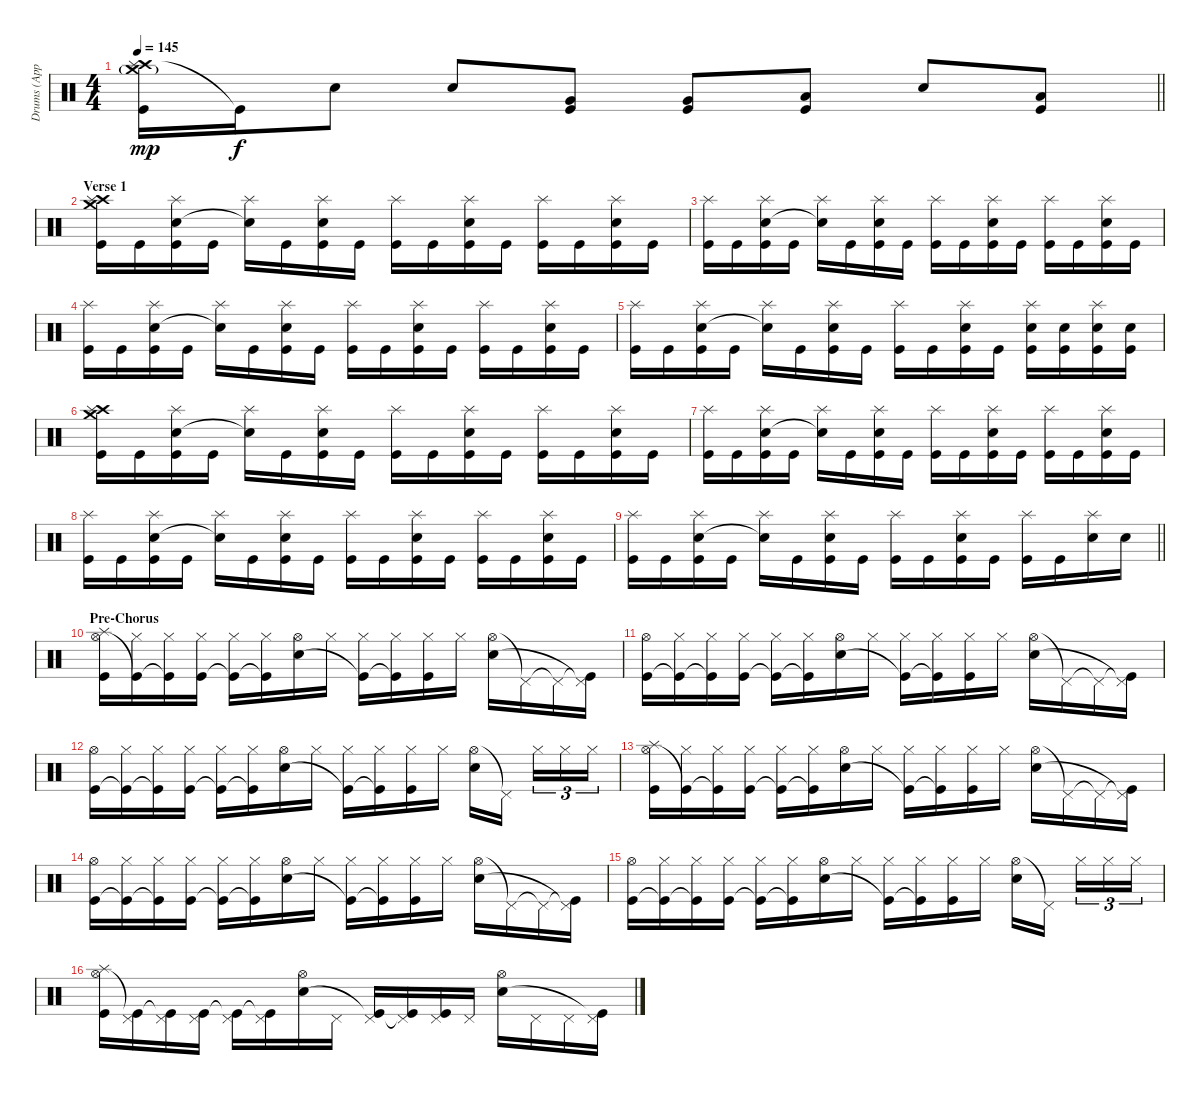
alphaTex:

\track ("Drums (Approx.)" "Drums (App") {instrument percussion}
\staff {score}
\articulation defaults
\ts (4 4)
\tempo 145
\clef neutral
\barLineRight lightlight
\ks c
("Crash high (hit)" "Crash medium (hit)"{g} "Splash (hit)" "Kick (hit)").16{dy mp} "Kick (hit)"{t}.16{dy f} "Electric Snare (hit)".8 "Electric Snare (hit)".8 ("Very Low Tom (hit)" "Kick (hit)").8 ("Very Low Tom (hit)" "Kick (hit)").8 ("Low Floor Tom (hit)" "Kick (hit)").8 "Electric Snare (hit)".8 ("Low Floor Tom (hit)" "Kick (hit)").8 |
\section ("" "Verse 1")
("Crash high (hit)" "Crash medium (hit)" "Splash (hit)" "Kick (hit)").16 "Kick (hit)".16 ("Splash (hit)" "Electric Snare (hit)" "Kick (hit)").16 "Kick (hit)".16 ("Splash (hit)" "Snare (hit)"{t}).16 "Kick (hit)".16 ("Splash (hit)" "Electric Snare (hit)" "Kick (hit)").16 "Kick (hit)".16 ("Splash (hit)" "Kick (hit)").16 "Kick (hit)".16 ("Splash (hit)" "Electric Snare (hit)" "Kick (hit)").16 "Kick (hit)".16 ("Splash (hit)" "Kick (hit)").16 "Kick (hit)".16 ("Splash (hit)" "Electric Snare (hit)" "Kick (hit)").16 "Kick (hit)".16 |
("Splash (hit)" "Kick (hit)").16 "Kick (hit)".16 ("Splash (hit)" "Electric Snare (hit)" "Kick (hit)").16 "Kick (hit)".16 ("Splash (hit)" "Snare (hit)"{t}).16 "Kick (hit)".16 ("Splash (hit)" "Electric Snare (hit)" "Kick (hit)").16 "Kick (hit)".16 ("Splash (hit)" "Kick (hit)").16 "Kick (hit)".16 ("Splash (hit)" "Electric Snare (hit)" "Kick (hit)").16 "Kick (hit)".16 ("Splash (hit)" "Kick (hit)").16 "Kick (hit)".16 ("Splash (hit)" "Electric Snare (hit)" "Kick (hit)").16 "Kick (hit)".16 |
("Splash (hit)" "Kick (hit)").16 "Kick (hit)".16 ("Splash (hit)" "Electric Snare (hit)" "Kick (hit)").16 "Kick (hit)".16 ("Splash (hit)" "Snare (hit)"{t}).16 "Kick (hit)".16 ("Splash (hit)" "Electric Snare (hit)" "Kick (hit)").16 "Kick (hit)".16 ("Splash (hit)" "Kick (hit)").16 "Kick (hit)".16 ("Splash (hit)" "Electric Snare (hit)" "Kick (hit)").16 "Kick (hit)".16 ("Splash (hit)" "Kick (hit)").16 "Kick (hit)".16 ("Splash (hit)" "Electric Snare (hit)" "Kick (hit)").16 "Kick (hit)".16 |
("Splash (hit)" "Kick (hit)").16 "Kick (hit)".16 ("Splash (hit)" "Electric Snare (hit)" "Kick (hit)").16 "Kick (hit)".16 ("Splash (hit)" "Snare (hit)"{t}).16 "Kick (hit)".16 ("Splash (hit)" "Electric Snare (hit)" "Kick (hit)").16 "Kick (hit)".16 ("Splash (hit)" "Kick (hit)").16 "Kick (hit)".16 ("Splash (hit)" "Electric Snare (hit)" "Kick (hit)").16 "Kick (hit)".16 ("Splash (hit)" "Electric Snare (hit)" "Kick (hit)").16 ("Electric Snare (hit)" "Kick (hit)").16 ("Splash (hit)" "Electric Snare (hit)" "Kick (hit)").16 ("Electric Snare (hit)" "Kick (hit)").16 |
("Crash high (hit)" "Crash medium (hit)" "Splash (hit)" "Kick (hit)").16 "Kick (hit)".16 ("Splash (hit)" "Electric Snare (hit)" "Kick (hit)").16 "Kick (hit)".16 ("Splash (hit)" "Snare (hit)"{t}).16 "Kick (hit)".16 ("Splash (hit)" "Electric Snare (hit)" "Kick (hit)").16 "Kick (hit)".16 ("Splash (hit)" "Kick (hit)").16 "Kick (hit)".16 ("Splash (hit)" "Electric Snare (hit)" "Kick (hit)").16 "Kick (hit)".16 ("Splash (hit)" "Kick (hit)").16 "Kick (hit)".16 ("Splash (hit)" "Electric Snare (hit)" "Kick (hit)").16 "Kick (hit)".16 |
("Splash (hit)" "Kick (hit)").16 "Kick (hit)".16 ("Splash (hit)" "Electric Snare (hit)" "Kick (hit)").16 "Kick (hit)".16 ("Splash (hit)" "Snare (hit)"{t}).16 "Kick (hit)".16 ("Splash (hit)" "Electric Snare (hit)" "Kick (hit)").16 "Kick (hit)".16 ("Splash (hit)" "Kick (hit)").16 "Kick (hit)".16 ("Splash (hit)" "Electric Snare (hit)" "Kick (hit)").16 "Kick (hit)".16 ("Splash (hit)" "Kick (hit)").16 "Kick (hit)".16 ("Splash (hit)" "Electric Snare (hit)" "Kick (hit)").16 "Kick (hit)".16 |
("Splash (hit)" "Kick (hit)").16 "Kick (hit)".16 ("Splash (hit)" "Electric Snare (hit)" "Kick (hit)").16 "Kick (hit)".16 ("Splash (hit)" "Snare (hit)"{t}).16 "Kick (hit)".16 ("Splash (hit)" "Electric Snare (hit)" "Kick (hit)").16 "Kick (hit)".16 ("Splash (hit)" "Kick (hit)").16 "Kick (hit)".16 ("Splash (hit)" "Electric Snare (hit)" "Kick (hit)").16 "Kick (hit)".16 ("Splash (hit)" "Kick (hit)").16 "Kick (hit)".16 ("Splash (hit)" "Electric Snare (hit)" "Kick (hit)").16 "Kick (hit)".16 |
\barLineRight lightlight
("Splash (hit)" "Kick (hit)").16 "Kick (hit)".16 ("Splash (hit)" "Electric Snare (hit)" "Kick (hit)").16 "Kick (hit)".16 ("Splash (hit)" "Snare (hit)"{t}).16 "Kick (hit)".16 ("Splash (hit)" "Electric Snare (hit)" "Kick (hit)").16 "Kick (hit)".16 ("Splash (hit)" "Kick (hit)").16 "Kick (hit)".16 ("Splash (hit)" "Electric Snare (hit)" "Kick (hit)").16 "Kick (hit)".16 ("Splash (hit)" "Kick (hit)").16 "Kick (hit)".16 ("Splash (hit)" "Electric Snare (hit)").16 "Electric Snare (hit)".16 |
\section ("" "Pre-Chorus")
("Splash (hit)" "Hi-Hat (open)" "Kick (hit)").16 ("Hi-Hat (closed)" "Kick (hit)"{t}).16 ("Hi-Hat (closed)" "Kick (hit)"{t}).16 ("Hi-Hat (closed)" "Kick (hit)").16 ("Hi-Hat (closed)" "Kick (hit)"{t}).16 ("Hi-Hat (closed)" "Kick (hit)"{t}).16 ("Hi-Hat (open)" "Electric Snare (hit)").16 "Hi-Hat (closed)".16 ("Hi-Hat (closed)" "Kick (hit)"{t}).16 ("Hi-Hat (closed)" "Kick (hit)"{t}).16 ("Hi-Hat (closed)" "Kick (hit)").16 "Hi-Hat (closed)".16 ("Hi-Hat (open)" "Electric Snare (hit)").16 "Pedal Hi-Hat (hit)"{t}.16 "Pedal Hi-Hat (hit)"{t}.16 ("Pedal Hi-Hat (hit)"{t} "Kick (hit)"{t}).16 |
("Hi-Hat (open)" "Kick (hit)").16 ("Hi-Hat (closed)" "Kick (hit)"{t}).16 ("Hi-Hat (closed)" "Kick (hit)"{t}).16 ("Hi-Hat (closed)" "Kick (hit)").16 ("Hi-Hat (closed)" "Kick (hit)"{t}).16 ("Hi-Hat (closed)" "Kick (hit)"{t}).16 ("Hi-Hat (open)" "Electric Snare (hit)").16 "Hi-Hat (closed)".16 ("Hi-Hat (closed)" "Kick (hit)"{t}).16 ("Hi-Hat (closed)" "Kick (hit)"{t}).16 ("Hi-Hat (closed)" "Kick (hit)").16 "Hi-Hat (closed)".16 ("Hi-Hat (open)" "Electric Snare (hit)").16 "Pedal Hi-Hat (hit)"{t}.16 "Pedal Hi-Hat (hit)"{t}.16 ("Pedal Hi-Hat (hit)"{t} "Kick (hit)"{t}).16 |
("Hi-Hat (open)" "Kick (hit)").16 ("Hi-Hat (closed)" "Kick (hit)"{t}).16 ("Hi-Hat (closed)" "Kick (hit)"{t}).16 ("Hi-Hat (closed)" "Kick (hit)").16 ("Hi-Hat (closed)" "Kick (hit)"{t}).16 ("Hi-Hat (closed)" "Kick (hit)"{t}).16 ("Hi-Hat (open)" "Electric Snare (hit)").16 "Hi-Hat (closed)".16 ("Hi-Hat (closed)" "Kick (hit)"{t}).16 ("Hi-Hat (closed)" "Kick (hit)"{t}).16 ("Hi-Hat (closed)" "Kick (hit)").16 "Hi-Hat (closed)".16 ("Hi-Hat (open)" "Electric Snare (hit)").16 "Pedal Hi-Hat (hit)"{t}.16{beam splitsecondary} "Hi-Hat (closed)".16{tu (3 2)} "Hi-Hat (closed)".16{tu (3 2)} "Hi-Hat (closed)".16{tu (3 2)} |
("Splash (hit)" "Hi-Hat (open)" "Kick (hit)").16 ("Hi-Hat (closed)" "Kick (hit)"{t}).16 ("Hi-Hat (closed)" "Kick (hit)"{t}).16 ("Hi-Hat (closed)" "Kick (hit)").16 ("Hi-Hat (closed)" "Kick (hit)"{t}).16 ("Hi-Hat (closed)" "Kick (hit)"{t}).16 ("Hi-Hat (open)" "Electric Snare (hit)").16 "Hi-Hat (closed)".16 ("Hi-Hat (closed)" "Kick (hit)"{t}).16 ("Hi-Hat (closed)" "Kick (hit)"{t}).16 ("Hi-Hat (closed)" "Kick (hit)").16 "Hi-Hat (closed)".16 ("Hi-Hat (open)" "Electric Snare (hit)").16 "Pedal Hi-Hat (hit)"{t}.16 "Pedal Hi-Hat (hit)"{t}.16 ("Pedal Hi-Hat (hit)"{t} "Kick (hit)"{t}).16 |
("Hi-Hat (open)" "Kick (hit)").16 ("Hi-Hat (closed)" "Kick (hit)"{t}).16 ("Hi-Hat (closed)" "Kick (hit)"{t}).16 ("Hi-Hat (closed)" "Kick (hit)").16 ("Hi-Hat (closed)" "Kick (hit)"{t}).16 ("Hi-Hat (closed)" "Kick (hit)"{t}).16 ("Hi-Hat (open)" "Electric Snare (hit)").16 "Hi-Hat (closed)".16 ("Hi-Hat (closed)" "Kick (hit)"{t}).16 ("Hi-Hat (closed)" "Kick (hit)"{t}).16 ("Hi-Hat (closed)" "Kick (hit)").16 "Hi-Hat (closed)".16 ("Hi-Hat (open)" "Electric Snare (hit)").16 "Pedal Hi-Hat (hit)"{t}.16 "Pedal Hi-Hat (hit)"{t}.16 ("Pedal Hi-Hat (hit)"{t} "Kick (hit)"{t}).16 |
("Hi-Hat (open)" "Kick (hit)").16 ("Hi-Hat (closed)" "Kick (hit)"{t}).16 ("Hi-Hat (closed)" "Kick (hit)"{t}).16 ("Hi-Hat (closed)" "Kick (hit)").16 ("Hi-Hat (closed)" "Kick (hit)"{t}).16 ("Hi-Hat (closed)" "Kick (hit)"{t}).16 ("Hi-Hat (open)" "Electric Snare (hit)").16 "Hi-Hat (closed)".16 ("Hi-Hat (closed)" "Kick (hit)"{t}).16 ("Hi-Hat (closed)" "Kick (hit)"{t}).16 ("Hi-Hat (closed)" "Kick (hit)").16 "Hi-Hat (closed)".16 ("Hi-Hat (open)" "Electric Snare (hit)").16 "Pedal Hi-Hat (hit)"{t}.16{beam splitsecondary} "Hi-Hat (closed)".16{tu (3 2)} "Hi-Hat (closed)".16{tu (3 2)} "Hi-Hat (closed)".16{tu (3 2)} |
("Splash (hit)" "Hi-Hat (open)" "Kick (hit)").16 ("Pedal Hi-Hat (hit)" "Kick (hit)"{t}).16 ("Pedal Hi-Hat (hit)" "Kick (hit)"{t}).16 ("Pedal Hi-Hat (hit)" "Kick (hit)").16 ("Pedal Hi-Hat (hit)" "Kick (hit)"{t}).16 ("Pedal Hi-Hat (hit)" "Kick (hit)"{t}).16 ("Hi-Hat (open)" "Electric Snare (hit)").16 "Pedal Hi-Hat (hit)".16 ("Pedal Hi-Hat (hit)" "Kick (hit)"{t}).16 ("Pedal Hi-Hat (hit)" "Kick (hit)"{t}).16 ("Pedal Hi-Hat (hit)" "Kick (hit)").16 "Pedal Hi-Hat (hit)".16 ("Hi-Hat (open)" "Electric Snare (hit)").16 "Pedal Hi-Hat (hit)".16 "Pedal Hi-Hat (hit)".16 ("Pedal Hi-Hat (hit)" "Kick (hit)"{t}).16
